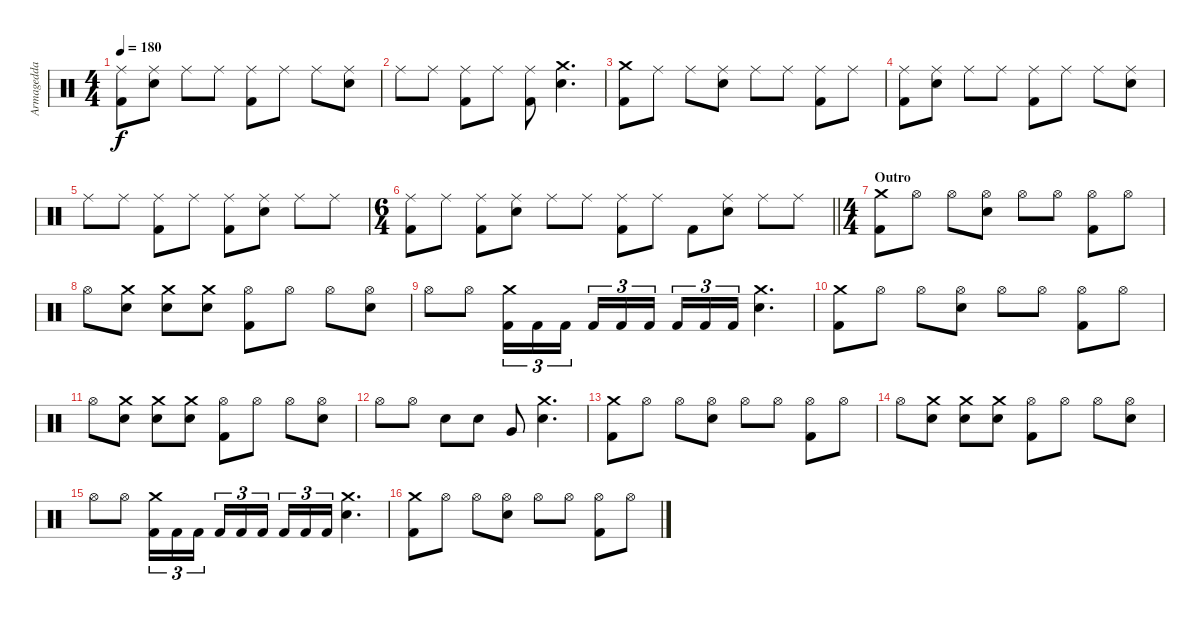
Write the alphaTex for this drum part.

\track ("Armagedda" "Armagedda") {instrument percussion}
\staff {score}
\articulation defaults
\ts (4 4)
\tempo 180
\clef neutral
\ks c
("Ride (middle)" "Kick (hit) 2").8{dy f} ("Ride (middle)" "Electric Snare (hit)").8 "Ride (middle)".8 "Ride (middle)".8 ("Ride (middle)" "Kick (hit) 2").8 "Ride (middle)".8 "Ride (middle)".8 ("Ride (middle)" "Electric Snare (hit)").8 |
"Ride (middle)".8 "Ride (middle)".8 ("Ride (middle)" "Kick (hit) 2").8 "Ride (middle)".8 ("Ride (middle)" "Kick (hit) 2").8 ("Crash medium (hit)" "Electric Snare (hit)").4{d} |
("Crash medium (hit)" "Kick (hit) 2").8 "Ride (middle)".8 "Ride (middle)".8 ("Ride (middle)" "Electric Snare (hit)").8 "Ride (middle)".8 "Ride (middle)".8 ("Ride (middle)" "Kick (hit) 2").8 "Ride (middle)".8 |
("Ride (middle)" "Kick (hit) 2").8 ("Ride (middle)" "Electric Snare (hit)").8 "Ride (middle)".8 "Ride (middle)".8 ("Ride (middle)" "Kick (hit) 2").8 "Ride (middle)".8 "Ride (middle)".8 ("Ride (middle)" "Electric Snare (hit)").8 |
"Ride (middle)".8 "Ride (middle)".8 ("Ride (middle)" "Kick (hit) 2").8 "Ride (middle)".8 ("Ride (middle)" "Kick (hit) 2").8 ("Ride (middle)" "Electric Snare (hit)").8 "Ride (middle)".8 "Ride (middle)".8 |
\ts (6 4)
\barLineRight lightlight
("Ride (middle)" "Kick (hit) 2").8 "Ride (middle)".8 ("Ride (middle)" "Kick (hit) 2").8 ("Ride (middle)" "Electric Snare (hit)").8 "Ride (middle)".8 "Ride (middle)".8 ("Ride (middle)" "Kick (hit) 2").8 "Ride (middle)".8 "Kick (hit) 2".8 ("Ride (middle)" "Electric Snare (hit)").8 "Ride (middle)".8 "Ride (middle)".8 |
\ts (4 4)
\section ("" "Outro")
("Crash medium (hit)" "Kick (hit) 2").8 "Hi-Hat (open)".8 "Hi-Hat (open)".8 ("Hi-Hat (open)" "Electric Snare (hit)").8 "Hi-Hat (open)".8 "Hi-Hat (open)".8 ("Hi-Hat (open)" "Kick (hit) 2").8 "Hi-Hat (open)".8 |
"Hi-Hat (open)".8 ("Crash medium (hit)" "Electric Snare (hit)").8 ("Crash medium (hit)" "Electric Snare (hit)").8 ("Crash medium (hit)" "Electric Snare (hit)").8 ("Hi-Hat (open)" "Kick (hit) 2").8 "Hi-Hat (open)".8 "Hi-Hat (open)".8 ("Hi-Hat (open)" "Electric Snare (hit)").8 |
"Hi-Hat (open)".8 "Hi-Hat (open)".8 ("Crash medium (hit)" "Kick (hit) 2").16{tu (3 2)} "Kick (hit) 2".16{tu (3 2)} "Kick (hit) 2".16{tu (3 2) beam splitsecondary} "Kick (hit) 2".16{tu (3 2)} "Kick (hit) 2".16{tu (3 2)} "Kick (hit) 2".16{tu (3 2)} "Kick (hit) 2".16{tu (3 2)} "Kick (hit) 2".16{tu (3 2)} "Kick (hit) 2".16{tu (3 2)} ("Crash medium (hit)" "Electric Snare (hit)").4{d} |
("Crash medium (hit)" "Kick (hit) 2").8 "Hi-Hat (open)".8 "Hi-Hat (open)".8 ("Hi-Hat (open)" "Electric Snare (hit)").8 "Hi-Hat (open)".8 "Hi-Hat (open)".8 ("Hi-Hat (open)" "Kick (hit) 2").8 "Hi-Hat (open)".8 |
"Hi-Hat (open)".8 ("Crash medium (hit)" "Electric Snare (hit)").8 ("Crash medium (hit)" "Electric Snare (hit)").8 ("Crash medium (hit)" "Electric Snare (hit)").8 ("Hi-Hat (open)" "Kick (hit) 2").8 "Hi-Hat (open)".8 "Hi-Hat (open)".8 ("Hi-Hat (open)" "Electric Snare (hit)").8 |
"Hi-Hat (open)".8 "Hi-Hat (open)".8 "Electric Snare (hit)".8 "Electric Snare (hit)".8 "Very Low Tom (hit)".8 ("Crash medium (hit)" "Electric Snare (hit)").4{d} |
("Crash medium (hit)" "Kick (hit) 2").8 "Hi-Hat (open)".8 "Hi-Hat (open)".8 ("Hi-Hat (open)" "Electric Snare (hit)").8 "Hi-Hat (open)".8 "Hi-Hat (open)".8 ("Hi-Hat (open)" "Kick (hit) 2").8 "Hi-Hat (open)".8 |
"Hi-Hat (open)".8 ("Crash medium (hit)" "Electric Snare (hit)").8 ("Crash medium (hit)" "Electric Snare (hit)").8 ("Crash medium (hit)" "Electric Snare (hit)").8 ("Hi-Hat (open)" "Kick (hit) 2").8 "Hi-Hat (open)".8 "Hi-Hat (open)".8 ("Hi-Hat (open)" "Electric Snare (hit)").8 |
"Hi-Hat (open)".8 "Hi-Hat (open)".8 ("Crash medium (hit)" "Kick (hit) 2").16{tu (3 2)} "Kick (hit) 2".16{tu (3 2)} "Kick (hit) 2".16{tu (3 2) beam splitsecondary} "Kick (hit) 2".16{tu (3 2)} "Kick (hit) 2".16{tu (3 2)} "Kick (hit) 2".16{tu (3 2)} "Kick (hit) 2".16{tu (3 2)} "Kick (hit) 2".16{tu (3 2)} "Kick (hit) 2".16{tu (3 2)} ("Crash medium (hit)" "Electric Snare (hit)").4{d} |
("Crash medium (hit)" "Kick (hit) 2").8 "Hi-Hat (open)".8 "Hi-Hat (open)".8 ("Hi-Hat (open)" "Electric Snare (hit)").8 "Hi-Hat (open)".8 "Hi-Hat (open)".8 ("Hi-Hat (open)" "Kick (hit) 2").8 "Hi-Hat (open)".8
